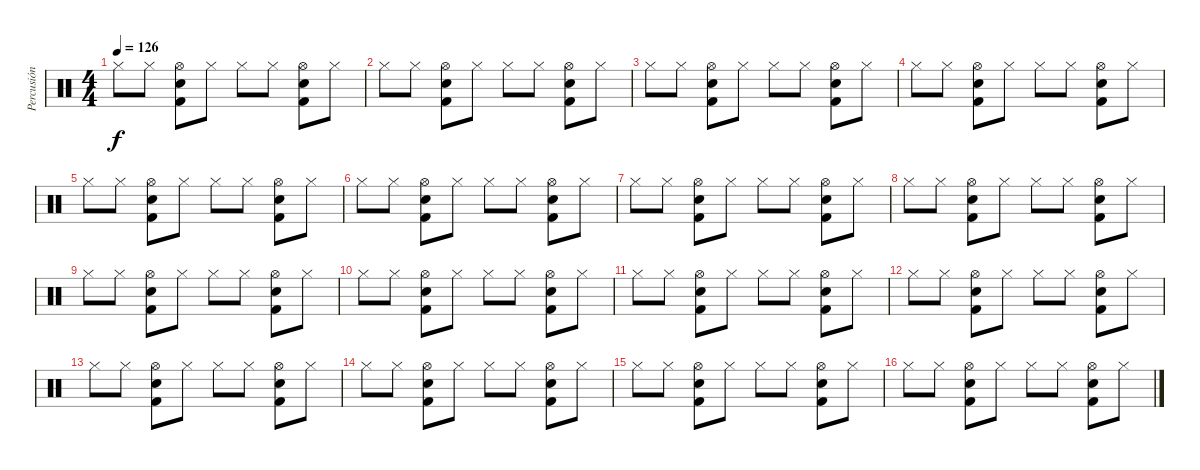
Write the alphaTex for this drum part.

\track ("Percusión" "Percusión") {instrument percussion}
\staff {score}
\articulation defaults
\ts (4 4)
\tempo 126
\clef neutral
\ks c "Hi-Hat (closed)".8{dy f} "Hi-Hat (closed)".8
("Snare (hit) 2" "Hi-Hat (open)" "Kick (hit) 2").8 "Hi-Hat (closed)".8 "Hi-Hat (closed)".8 "Hi-Hat (closed)".8 ("Snare (hit) 2" "Hi-Hat (open)" "Kick (hit) 2").8 "Hi-Hat (closed)".8 |
"Hi-Hat (closed)".8 "Hi-Hat (closed)".8 ("Snare (hit) 2" "Hi-Hat (open)" "Kick (hit) 2").8 "Hi-Hat (closed)".8 "Hi-Hat (closed)".8 "Hi-Hat (closed)".8 ("Snare (hit) 2" "Hi-Hat (open)" "Kick (hit) 2").8 "Hi-Hat (closed)".8 |
"Hi-Hat (closed)".8 "Hi-Hat (closed)".8 ("Snare (hit) 2" "Hi-Hat (open)" "Kick (hit) 2").8 "Hi-Hat (closed)".8 "Hi-Hat (closed)".8 "Hi-Hat (closed)".8 ("Snare (hit) 2" "Hi-Hat (open)" "Kick (hit) 2").8 "Hi-Hat (closed)".8 |
"Hi-Hat (closed)".8 "Hi-Hat (closed)".8 ("Snare (hit) 2" "Hi-Hat (open)" "Kick (hit) 2").8 "Hi-Hat (closed)".8 "Hi-Hat (closed)".8 "Hi-Hat (closed)".8 ("Snare (hit) 2" "Hi-Hat (open)" "Kick (hit) 2").8 "Hi-Hat (closed)".8 |
"Hi-Hat (closed)".8 "Hi-Hat (closed)".8 ("Snare (hit) 2" "Hi-Hat (open)" "Kick (hit) 2").8 "Hi-Hat (closed)".8 "Hi-Hat (closed)".8 "Hi-Hat (closed)".8 ("Snare (hit) 2" "Hi-Hat (open)" "Kick (hit) 2").8 "Hi-Hat (closed)".8 |
"Hi-Hat (closed)".8 "Hi-Hat (closed)".8 ("Snare (hit) 2" "Hi-Hat (open)" "Kick (hit) 2").8 "Hi-Hat (closed)".8 "Hi-Hat (closed)".8 "Hi-Hat (closed)".8 ("Snare (hit) 2" "Hi-Hat (open)" "Kick (hit) 2").8 "Hi-Hat (closed)".8 |
"Hi-Hat (closed)".8 "Hi-Hat (closed)".8 ("Snare (hit) 2" "Hi-Hat (open)" "Kick (hit) 2").8 "Hi-Hat (closed)".8 "Hi-Hat (closed)".8 "Hi-Hat (closed)".8 ("Snare (hit) 2" "Hi-Hat (open)" "Kick (hit) 2").8 "Hi-Hat (closed)".8 |
"Hi-Hat (closed)".8 "Hi-Hat (closed)".8 ("Snare (hit) 2" "Hi-Hat (open)" "Kick (hit) 2").8 "Hi-Hat (closed)".8 "Hi-Hat (closed)".8 "Hi-Hat (closed)".8 ("Snare (hit) 2" "Hi-Hat (open)" "Kick (hit) 2").8 "Hi-Hat (closed)".8 |
"Hi-Hat (closed)".8 "Hi-Hat (closed)".8 ("Snare (hit) 2" "Hi-Hat (open)" "Kick (hit) 2").8 "Hi-Hat (closed)".8 "Hi-Hat (closed)".8 "Hi-Hat (closed)".8 ("Snare (hit) 2" "Hi-Hat (open)" "Kick (hit) 2").8 "Hi-Hat (closed)".8 |
"Hi-Hat (closed)".8 "Hi-Hat (closed)".8 ("Snare (hit) 2" "Hi-Hat (open)" "Kick (hit) 2").8 "Hi-Hat (closed)".8 "Hi-Hat (closed)".8 "Hi-Hat (closed)".8 ("Snare (hit) 2" "Hi-Hat (open)" "Kick (hit) 2").8 "Hi-Hat (closed)".8 |
"Hi-Hat (closed)".8 "Hi-Hat (closed)".8 ("Snare (hit) 2" "Hi-Hat (open)" "Kick (hit) 2").8 "Hi-Hat (closed)".8 "Hi-Hat (closed)".8 "Hi-Hat (closed)".8 ("Snare (hit) 2" "Hi-Hat (open)" "Kick (hit) 2").8 "Hi-Hat (closed)".8 |
"Hi-Hat (closed)".8 "Hi-Hat (closed)".8 ("Snare (hit) 2" "Hi-Hat (open)" "Kick (hit) 2").8 "Hi-Hat (closed)".8 "Hi-Hat (closed)".8 "Hi-Hat (closed)".8 ("Snare (hit) 2" "Hi-Hat (open)" "Kick (hit) 2").8 "Hi-Hat (closed)".8 |
"Hi-Hat (closed)".8 "Hi-Hat (closed)".8 ("Snare (hit) 2" "Hi-Hat (open)" "Kick (hit) 2").8 "Hi-Hat (closed)".8 "Hi-Hat (closed)".8 "Hi-Hat (closed)".8 ("Snare (hit) 2" "Hi-Hat (open)" "Kick (hit) 2").8 "Hi-Hat (closed)".8 |
"Hi-Hat (closed)".8 "Hi-Hat (closed)".8 ("Snare (hit) 2" "Hi-Hat (open)" "Kick (hit) 2").8 "Hi-Hat (closed)".8 "Hi-Hat (closed)".8 "Hi-Hat (closed)".8 ("Snare (hit) 2" "Hi-Hat (open)" "Kick (hit) 2").8 "Hi-Hat (closed)".8 |
"Hi-Hat (closed)".8 "Hi-Hat (closed)".8 ("Snare (hit) 2" "Hi-Hat (open)" "Kick (hit) 2").8 "Hi-Hat (closed)".8 "Hi-Hat (closed)".8 "Hi-Hat (closed)".8 ("Snare (hit) 2" "Hi-Hat (open)" "Kick (hit) 2").8 "Hi-Hat (closed)".8 |
"Hi-Hat (closed)".8 "Hi-Hat (closed)".8 ("Snare (hit) 2" "Hi-Hat (open)" "Kick (hit) 2").8 "Hi-Hat (closed)".8 "Hi-Hat (closed)".8 "Hi-Hat (closed)".8 ("Snare (hit) 2" "Hi-Hat (open)" "Kick (hit) 2").8 "Hi-Hat (closed)".8
